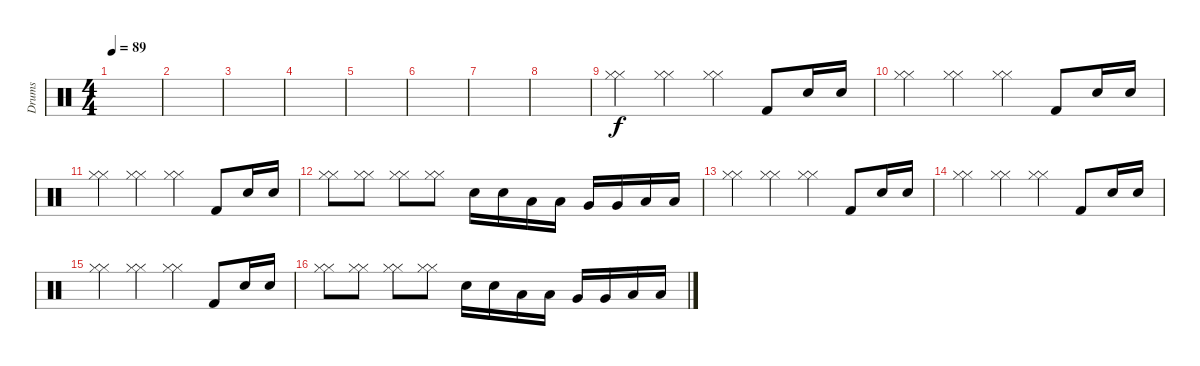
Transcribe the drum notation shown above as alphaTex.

\track ("Drums" "Drums") {instrument percussion}
\staff {score}
\articulation defaults
\ts (4 4)
\section ("" "")
\tempo 89
\clef neutral
\ks c
|
|
|
|
|
|
|
|
\section ("" "")
("Hi-Hat (closed)" "Hi-Hat (closed)").4 ("Hi-Hat (closed)" "Hi-Hat (closed)").4 ("Hi-Hat (closed)" "Hi-Hat (closed)").4 "Kick (hit) 2".8 "Electric Snare (hit)".16 "Electric Snare (hit)".16 |
("Hi-Hat (closed)" "Hi-Hat (closed)").4 ("Hi-Hat (closed)" "Hi-Hat (closed)").4 ("Hi-Hat (closed)" "Hi-Hat (closed)").4 "Kick (hit) 2".8 "Electric Snare (hit)".16 "Electric Snare (hit)".16 |
("Hi-Hat (closed)" "Hi-Hat (closed)").4 ("Hi-Hat (closed)" "Hi-Hat (closed)").4 ("Hi-Hat (closed)" "Hi-Hat (closed)").4 "Kick (hit) 2".8 "Electric Snare (hit)".16 "Electric Snare (hit)".16 |
("Hi-Hat (closed)" "Hi-Hat (closed)").8 ("Hi-Hat (closed)" "Hi-Hat (closed)").8 ("Hi-Hat (closed)" "Hi-Hat (closed)").8 ("Hi-Hat (closed)" "Hi-Hat (closed)").8 "Electric Snare (hit)".16 "Electric Snare (hit)".16 "Low Tom (hit)".16 "Low Tom (hit)".16 "Very Low Tom (hit)".16 "Very Low Tom (hit)".16 "Low Floor Tom (hit)".16 "Low Floor Tom (hit)".16 |
("Hi-Hat (closed)" "Hi-Hat (closed)").4 ("Hi-Hat (closed)" "Hi-Hat (closed)").4 ("Hi-Hat (closed)" "Hi-Hat (closed)").4 "Kick (hit) 2".8 "Electric Snare (hit)".16 "Electric Snare (hit)".16 |
("Hi-Hat (closed)" "Hi-Hat (closed)").4 ("Hi-Hat (closed)" "Hi-Hat (closed)").4 ("Hi-Hat (closed)" "Hi-Hat (closed)").4 "Kick (hit) 2".8 "Electric Snare (hit)".16 "Electric Snare (hit)".16 |
("Hi-Hat (closed)" "Hi-Hat (closed)").4 ("Hi-Hat (closed)" "Hi-Hat (closed)").4 ("Hi-Hat (closed)" "Hi-Hat (closed)").4 "Kick (hit) 2".8 "Electric Snare (hit)".16 "Electric Snare (hit)".16 |
("Hi-Hat (closed)" "Hi-Hat (closed)").8 ("Hi-Hat (closed)" "Hi-Hat (closed)").8 ("Hi-Hat (closed)" "Hi-Hat (closed)").8 ("Hi-Hat (closed)" "Hi-Hat (closed)").8 "Electric Snare (hit)".16 "Electric Snare (hit)".16 "Low Tom (hit)".16 "Low Tom (hit)".16 "Very Low Tom (hit)".16 "Very Low Tom (hit)".16 "Low Floor Tom (hit)".16 "Low Floor Tom (hit)".16
